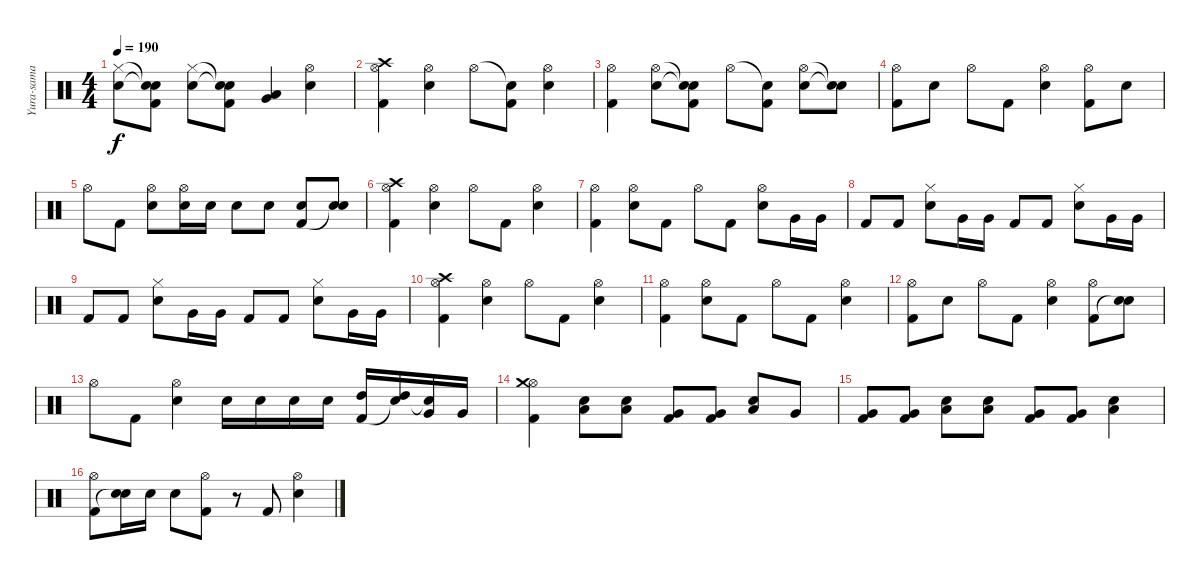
\track ("Yura-sama" "Yura-sama") {instrument percussion}
\staff {score}
\articulation defaults
\ts (4 4)
\tempo 190
\clef neutral
\ks c
("Hi-Hat (closed)" "Electric Snare (hit)").8{dy f} ("Snare (hit)"{t} "Snare (hit)"{t} "Kick (hit) 2").8 ("Hi-Hat (closed)" "Electric Snare (hit)").8 ("Snare (hit)"{t} "Snare (hit)"{t} "Kick (hit) 2").8 ("Low Tom (hit)" "Very Low Tom (hit)").4 ("Hi-Hat (open)" "Electric Snare (hit)").4 |
("Hi-Hat (open)" "Crash high (hit)" "Kick (hit) 2").4 ("Hi-Hat (open)" "Electric Snare (hit)").4 "Hi-Hat (open)".8 ("Snare (hit)"{t} "Kick (hit) 2").8 ("Hi-Hat (open)" "Electric Snare (hit)").4 |
("Hi-Hat (open)" "Kick (hit) 2").4 ("Hi-Hat (open)" "Electric Snare (hit)").8 ("Snare (hit)"{t} "Snare (hit)"{t} "Kick (hit) 2").8 "Hi-Hat (open)".8 ("Snare (hit)"{t} "Kick (hit) 2").8 ("Hi-Hat (open)" "Electric Snare (hit)").8 ("Snare (hit)"{t} "Snare (hit)"{t}).8 |
("Hi-Hat (open)" "Kick (hit) 2").8 "Electric Snare (hit)".8 "Hi-Hat (open)".8 "Kick (hit) 2".8 ("Hi-Hat (open)" "Electric Snare (hit)").4 ("Hi-Hat (open)" "Kick (hit) 2").8 "Electric Snare (hit)".8 |
"Hi-Hat (open)".8 "Kick (hit) 2".8 ("Hi-Hat (open)" "Electric Snare (hit)").8 ("Hi-Hat (open)" "Electric Snare (hit)").16 "Electric Snare (hit)".16 "Electric Snare (hit)".8 "Electric Snare (hit)".8 ("Electric Snare (hit)" "Kick (hit) 2").8 ("Electric Snare (hit)" "Snare (hit)"{t}).8 |
("Hi-Hat (open)" "Crash high (hit)" "Kick (hit) 2").4 ("Hi-Hat (open)" "Electric Snare (hit)").4 "Hi-Hat (open)".8 "Kick (hit) 2".8 ("Hi-Hat (open)" "Electric Snare (hit)").4 |
("Hi-Hat (open)" "Kick (hit) 2").4 ("Hi-Hat (open)" "Electric Snare (hit)").8 "Kick (hit) 2".8 "Hi-Hat (open)".8 "Kick (hit) 2".8 ("Hi-Hat (open)" "Electric Snare (hit)").8 "Very Low Tom (hit)".16 "Very Low Tom (hit)".16 |
"Kick (hit) 2".8 "Kick (hit) 2".8 ("Hi-Hat (closed)" "Electric Snare (hit)").8 "Very Low Tom (hit)".16 "Very Low Tom (hit)".16 "Kick (hit) 2".8 "Kick (hit) 2".8 ("Hi-Hat (closed)" "Electric Snare (hit)").8 "Very Low Tom (hit)".16 "Very Low Tom (hit)".16 |
"Kick (hit) 2".8 "Kick (hit) 2".8 ("Hi-Hat (closed)" "Electric Snare (hit)").8 "Very Low Tom (hit)".16 "Very Low Tom (hit)".16 "Kick (hit) 2".8 "Kick (hit) 2".8 ("Hi-Hat (closed)" "Electric Snare (hit)").8 "Very Low Tom (hit)".16 "Very Low Tom (hit)".16 |
("Hi-Hat (open)" "Crash high (hit)" "Kick (hit) 2").4 ("Hi-Hat (open)" "Electric Snare (hit)").4 "Hi-Hat (open)".8 "Kick (hit) 2".8 ("Hi-Hat (open)" "Electric Snare (hit)").4 |
("Hi-Hat (open)" "Kick (hit) 2").4 ("Hi-Hat (open)" "Electric Snare (hit)").8 "Kick (hit) 2".8 "Hi-Hat (open)".8 "Kick (hit) 2".8 ("Hi-Hat (open)" "Electric Snare (hit)").4 |
("Hi-Hat (open)" "Kick (hit) 2").8 "Electric Snare (hit)".8 "Hi-Hat (open)".8 "Kick (hit) 2".8 ("Hi-Hat (open)" "Electric Snare (hit)").4 ("Hi-Hat (open)" "Kick (hit) 2").8 ("Electric Snare (hit)" "Snare (hit)"{t}).8 |
"Hi-Hat (open)".8 "Kick (hit) 2".8 ("Hi-Hat (open)" "Electric Snare (hit)").4 "Electric Snare (hit)".16 "Electric Snare (hit)".16 "Electric Snare (hit)".16 "Electric Snare (hit)".16 ("High Tom (hit)" "Kick (hit) 2").16 ("High Tom (hit)" "Snare (hit)"{t}).16 ("Very Low Tom (hit)" "Snare (hit)"{t}).16 "Very Low Tom (hit)".16 |
("Hi-Hat (open)" "Crash medium (hit)" "Kick (hit) 2").4 ("Electric Snare (hit)" "Low Tom (hit)").8 ("Electric Snare (hit)" "Low Tom (hit)").8 ("Very Low Tom (hit)" "Kick (hit) 2").8 ("Very Low Tom (hit)" "Kick (hit) 2").8 ("Electric Snare (hit)" "Low Tom (hit)").8 "Very Low Tom (hit)".8 |
("Very Low Tom (hit)" "Kick (hit) 2").8 ("Very Low Tom (hit)" "Kick (hit) 2").8 ("Electric Snare (hit)" "Low Tom (hit)").8 ("Electric Snare (hit)" "Low Tom (hit)").8 ("Very Low Tom (hit)" "Kick (hit) 2").8 ("Very Low Tom (hit)" "Kick (hit) 2").8 ("Electric Snare (hit)" "Low Tom (hit)").4 |
("Hi-Hat (open)" "Kick (hit) 2").8 ("Electric Snare (hit)" "Snare (hit)"{t}).16 "Electric Snare (hit)".16 "Electric Snare (hit)".8 ("Hi-Hat (open)" "Kick (hit) 2").8 r.8 "Kick (hit) 2".8 ("Hi-Hat (open)" "Electric Snare (hit)").4
